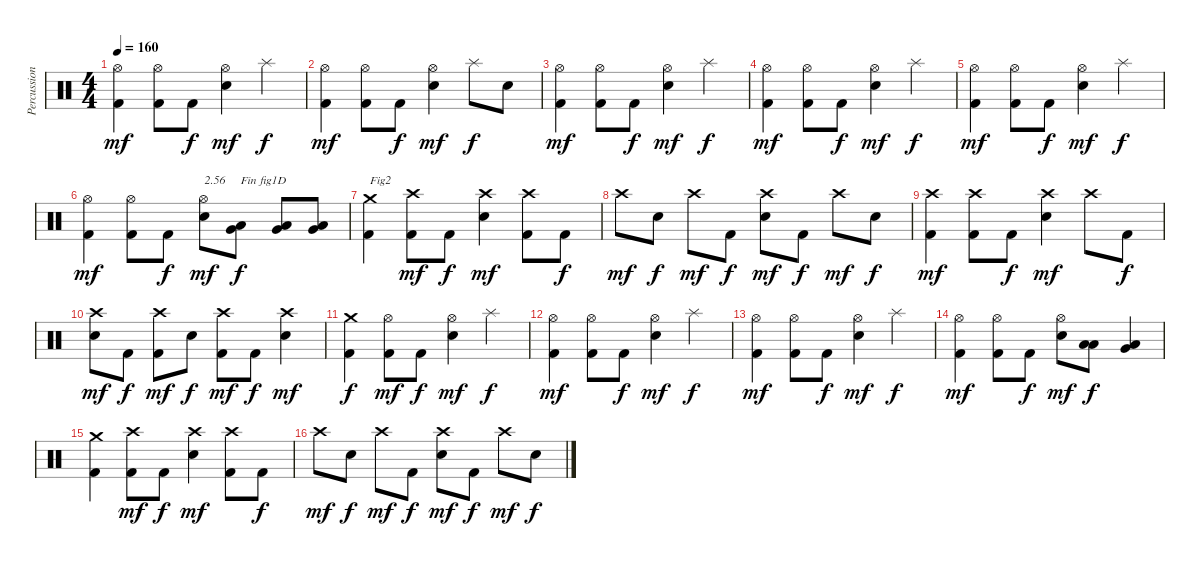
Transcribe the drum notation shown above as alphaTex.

\track ("Percussions" "Percussion") {instrument percussion}
\staff {score}
\articulation defaults
\ts (4 4)
\tempo 160
\clef neutral
\ks c
("Kick (hit) 2" "Hi-Hat (open)").4{dy mf} ("Kick (hit) 2" "Hi-Hat (open)").8 "Kick (hit) 2".8{dy f} ("Electric Snare (hit)" "Hi-Hat (open)").4{dy mf} "Splash (hit)".4{dy f} |
("Kick (hit) 2" "Hi-Hat (open)").4{dy mf} ("Kick (hit) 2" "Hi-Hat (open)").8 "Kick (hit) 2".8{dy f} ("Electric Snare (hit)" "Hi-Hat (open)").4{dy mf} "Splash (hit)".8{dy f} "Electric Snare (hit)".8 |
("Kick (hit) 2" "Hi-Hat (open)").4{dy mf} ("Kick (hit) 2" "Hi-Hat (open)").8 "Kick (hit) 2".8{dy f} ("Electric Snare (hit)" "Hi-Hat (open)").4{dy mf} "Splash (hit)".4{dy f} |
("Kick (hit) 2" "Hi-Hat (open)").4{dy mf} ("Kick (hit) 2" "Hi-Hat (open)").8 "Kick (hit) 2".8{dy f} ("Electric Snare (hit)" "Hi-Hat (open)").4{dy mf} "Splash (hit)".4{dy f} |
("Kick (hit) 2" "Hi-Hat (open)").4{dy mf} ("Kick (hit) 2" "Hi-Hat (open)").8 "Kick (hit) 2".8{dy f} ("Electric Snare (hit)" "Hi-Hat (open)").4{dy mf} "Splash (hit)".4{dy f} |
("Kick (hit) 2" "Hi-Hat (open)").4{dy mf} ("Kick (hit) 2" "Hi-Hat (open)").8 "Kick (hit) 2".8{dy f} ("Electric Snare (hit)" "Hi-Hat (open)").8{txt "2.56" dy mf} ("Very Low Tom (hit)" "Low Floor Tom (hit)").8{txt "Fin fig1D" dy f} ("Very Low Tom (hit)" "Low Floor Tom (hit)").8 ("Very Low Tom (hit)" "Low Floor Tom (hit)").8 |
("Kick (hit) 2" "Crash medium (hit)").4{txt "Fig2"} ("Kick (hit) 2" "Crash high (hit)").8{dy mf} "Kick (hit) 2".8{dy f} ("Electric Snare (hit)" "Crash high (hit)").4{dy mf} ("Kick (hit) 2" "Crash high (hit)").8 "Kick (hit) 2".8{dy f} |
"Crash high (hit)".8{dy mf} "Electric Snare (hit)".8{dy f} "Crash high (hit)".8{dy mf} "Kick (hit) 2".8{dy f} ("Electric Snare (hit)" "Crash high (hit)").8{dy mf} "Kick (hit) 2".8{dy f} "Crash high (hit)".8{dy mf} "Electric Snare (hit)".8{dy f} |
("Kick (hit) 2" "Crash high (hit)").4{dy mf} ("Kick (hit) 2" "Crash high (hit)").8 "Kick (hit) 2".8{dy f} ("Electric Snare (hit)" "Crash high (hit)").4{dy mf} "Crash high (hit)".8 "Kick (hit) 2".8{dy f} |
("Electric Snare (hit)" "Crash high (hit)").8{dy mf} "Kick (hit) 2".8{dy f} ("Kick (hit) 2" "Crash high (hit)").8{dy mf} "Electric Snare (hit)".8{dy f} ("Kick (hit) 2" "Crash high (hit)").8{dy mf} "Kick (hit) 2".8{dy f} ("Electric Snare (hit)" "Crash high (hit)").4{dy mf} |
("Kick (hit) 2" "Crash medium (hit)").4{dy f} ("Kick (hit) 2" "Hi-Hat (open)").8{dy mf} "Kick (hit) 2".8{dy f} ("Electric Snare (hit)" "Hi-Hat (open)").4{dy mf} "Splash (hit)".4{dy f} |
("Kick (hit) 2" "Hi-Hat (open)").4{dy mf} ("Kick (hit) 2" "Hi-Hat (open)").8 "Kick (hit) 2".8{dy f} ("Electric Snare (hit)" "Hi-Hat (open)").4{dy mf} "Splash (hit)".4{dy f} |
("Kick (hit) 2" "Hi-Hat (open)").4{dy mf} ("Kick (hit) 2" "Hi-Hat (open)").8 "Kick (hit) 2".8{dy f} ("Electric Snare (hit)" "Hi-Hat (open)").4{dy mf} "Splash (hit)".4{dy f} |
("Kick (hit) 2" "Hi-Hat (open)").4{dy mf} ("Kick (hit) 2" "Hi-Hat (open)").8 "Kick (hit) 2".8{dy f} ("Electric Snare (hit)" "Hi-Hat (open)").8{dy mf} ("Low Tom (hit)" "Low Floor Tom (hit)").8{dy f} ("Very Low Tom (hit)" "Low Floor Tom (hit)").4 |
("Kick (hit) 2" "Crash medium (hit)").4 ("Kick (hit) 2" "Crash high (hit)").8{dy mf} "Kick (hit) 2".8{dy f} ("Electric Snare (hit)" "Crash high (hit)").4{dy mf} ("Kick (hit) 2" "Crash high (hit)").8 "Kick (hit) 2".8{dy f} |
"Crash high (hit)".8{dy mf} "Electric Snare (hit)".8{dy f} "Crash high (hit)".8{dy mf} "Kick (hit) 2".8{dy f} ("Electric Snare (hit)" "Crash high (hit)").8{dy mf} "Kick (hit) 2".8{dy f} "Crash high (hit)".8{dy mf} "Electric Snare (hit)".8{dy f}
